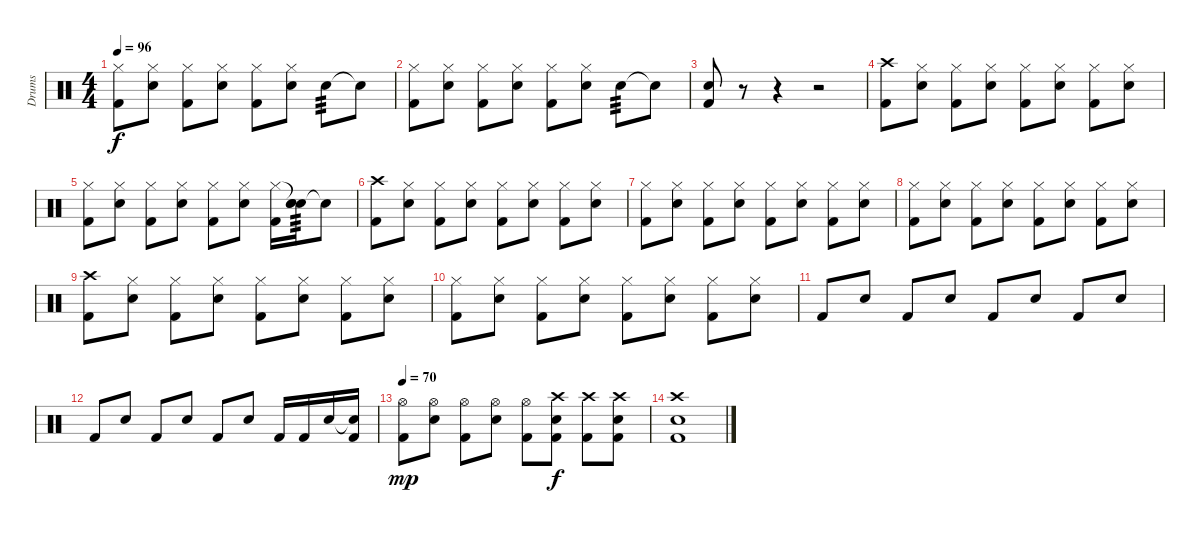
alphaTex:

\track ("Drums" "Drums") {instrument percussion}
\staff {score}
\articulation defaults
\ts (4 4)
\tempo 96
\clef neutral
\ks c
("Hi-Hat (closed)" "Kick (hit) 2").8{dy f} ("Hi-Hat (closed)" "Electric Snare (hit)").8 ("Hi-Hat (closed)" "Kick (hit) 2").8 ("Hi-Hat (closed)" "Electric Snare (hit)").8 ("Hi-Hat (closed)" "Kick (hit) 2").8 ("Hi-Hat (closed)" "Electric Snare (hit)").8 "Electric Snare (hit)".8{tp 3} "Snare (hit)"{t}.8 |
("Hi-Hat (closed)" "Kick (hit) 2").8 ("Hi-Hat (closed)" "Electric Snare (hit)").8 ("Hi-Hat (closed)" "Kick (hit) 2").8 ("Hi-Hat (closed)" "Electric Snare (hit)").8 ("Hi-Hat (closed)" "Kick (hit) 2").8 ("Hi-Hat (closed)" "Electric Snare (hit)").8 "Electric Snare (hit)".8{tp 3} "Snare (hit)"{t}.8 |
("Electric Snare (hit)" "Kick (hit) 2").8 r.8 r.4 r.2 |
("Crash high (hit)" "Kick (hit) 2").8 ("Hi-Hat (closed)" "Electric Snare (hit)").8 ("Hi-Hat (closed)" "Kick (hit) 2").8 ("Hi-Hat (closed)" "Electric Snare (hit)").8 ("Hi-Hat (closed)" "Kick (hit) 2").8 ("Hi-Hat (closed)" "Electric Snare (hit)").8 ("Hi-Hat (closed)" "Kick (hit) 2").8 ("Hi-Hat (closed)" "Electric Snare (hit)").8 |
("Hi-Hat (closed)" "Kick (hit) 2").8 ("Hi-Hat (closed)" "Electric Snare (hit)").8 ("Hi-Hat (closed)" "Kick (hit) 2").8 ("Hi-Hat (closed)" "Electric Snare (hit)").8 ("Hi-Hat (closed)" "Kick (hit) 2").8 ("Hi-Hat (closed)" "Electric Snare (hit)").8 ("Hi-Hat (closed)" "Kick (hit) 2").16 ("Snare (hit)"{t} "Electric Snare (hit)" "Snare (hit)").16{tp 3} "Snare (hit)"{t}.8 |
("Crash high (hit)" "Kick (hit) 2").8 ("Hi-Hat (closed)" "Electric Snare (hit)").8 ("Hi-Hat (closed)" "Kick (hit) 2").8 ("Hi-Hat (closed)" "Electric Snare (hit)").8 ("Hi-Hat (closed)" "Kick (hit) 2").8 ("Hi-Hat (closed)" "Electric Snare (hit)").8 ("Hi-Hat (closed)" "Kick (hit) 2").8 ("Hi-Hat (closed)" "Electric Snare (hit)").8 |
("Hi-Hat (closed)" "Kick (hit) 2").8 ("Hi-Hat (closed)" "Electric Snare (hit)").8 ("Hi-Hat (closed)" "Kick (hit) 2").8 ("Hi-Hat (closed)" "Electric Snare (hit)").8 ("Hi-Hat (closed)" "Kick (hit) 2").8 ("Hi-Hat (closed)" "Electric Snare (hit)").8 ("Hi-Hat (closed)" "Kick (hit) 2").8 ("Hi-Hat (closed)" "Electric Snare (hit)").8 |
("Hi-Hat (closed)" "Kick (hit) 2").8 ("Hi-Hat (closed)" "Electric Snare (hit)").8 ("Hi-Hat (closed)" "Kick (hit) 2").8 ("Hi-Hat (closed)" "Electric Snare (hit)").8 ("Hi-Hat (closed)" "Kick (hit) 2").8 ("Hi-Hat (closed)" "Electric Snare (hit)").8 ("Hi-Hat (closed)" "Kick (hit) 2").8 ("Hi-Hat (closed)" "Electric Snare (hit)").8 |
("Crash high (hit)" "Kick (hit) 2").8 ("Hi-Hat (closed)" "Electric Snare (hit)").8 ("Hi-Hat (closed)" "Kick (hit) 2").8 ("Hi-Hat (closed)" "Electric Snare (hit)").8 ("Hi-Hat (closed)" "Kick (hit) 2").8 ("Hi-Hat (closed)" "Electric Snare (hit)").8 ("Hi-Hat (closed)" "Kick (hit) 2").8 ("Hi-Hat (closed)" "Electric Snare (hit)").8 |
("Hi-Hat (closed)" "Kick (hit) 2").8 ("Hi-Hat (closed)" "Electric Snare (hit)").8 ("Hi-Hat (closed)" "Kick (hit) 2").8 ("Hi-Hat (closed)" "Electric Snare (hit)").8 ("Hi-Hat (closed)" "Kick (hit) 2").8 ("Hi-Hat (closed)" "Electric Snare (hit)").8 ("Hi-Hat (closed)" "Kick (hit) 2").8 ("Hi-Hat (closed)" "Electric Snare (hit)").8 |
"Kick (hit) 2".8 "Electric Snare (hit)".8 "Kick (hit) 2".8 "Electric Snare (hit)".8 "Kick (hit) 2".8 "Electric Snare (hit)".8 "Kick (hit) 2".8 "Electric Snare (hit)".8 |
"Kick (hit) 2".8 "Electric Snare (hit)".8 "Kick (hit) 2".8 "Electric Snare (hit)".8 "Kick (hit) 2".8 "Electric Snare (hit)".8 "Kick (hit) 2".16 "Kick (hit) 2".16 "Electric Snare (hit)".16 ("Snare (hit)"{t} "Kick (hit) 2").16 |
\tempo 70
("Hi-Hat (open)" "Kick (hit) 2").8{dy mp} ("Hi-Hat (open)" "Electric Snare (hit)").8 ("Hi-Hat (open)" "Kick (hit) 2").8 ("Hi-Hat (open)" "Electric Snare (hit)").8 ("Hi-Hat (open)" "Kick (hit) 2").8 ("Crash high (hit)" "Electric Snare (hit)" "Kick (hit) 2").8{dy f} ("Crash high (hit)" "Kick (hit) 2").8 ("Crash high (hit)" "Electric Snare (hit)" "Kick (hit) 2").8 |
("Crash high (hit)" "Electric Snare (hit)" "Kick (hit) 2").1
